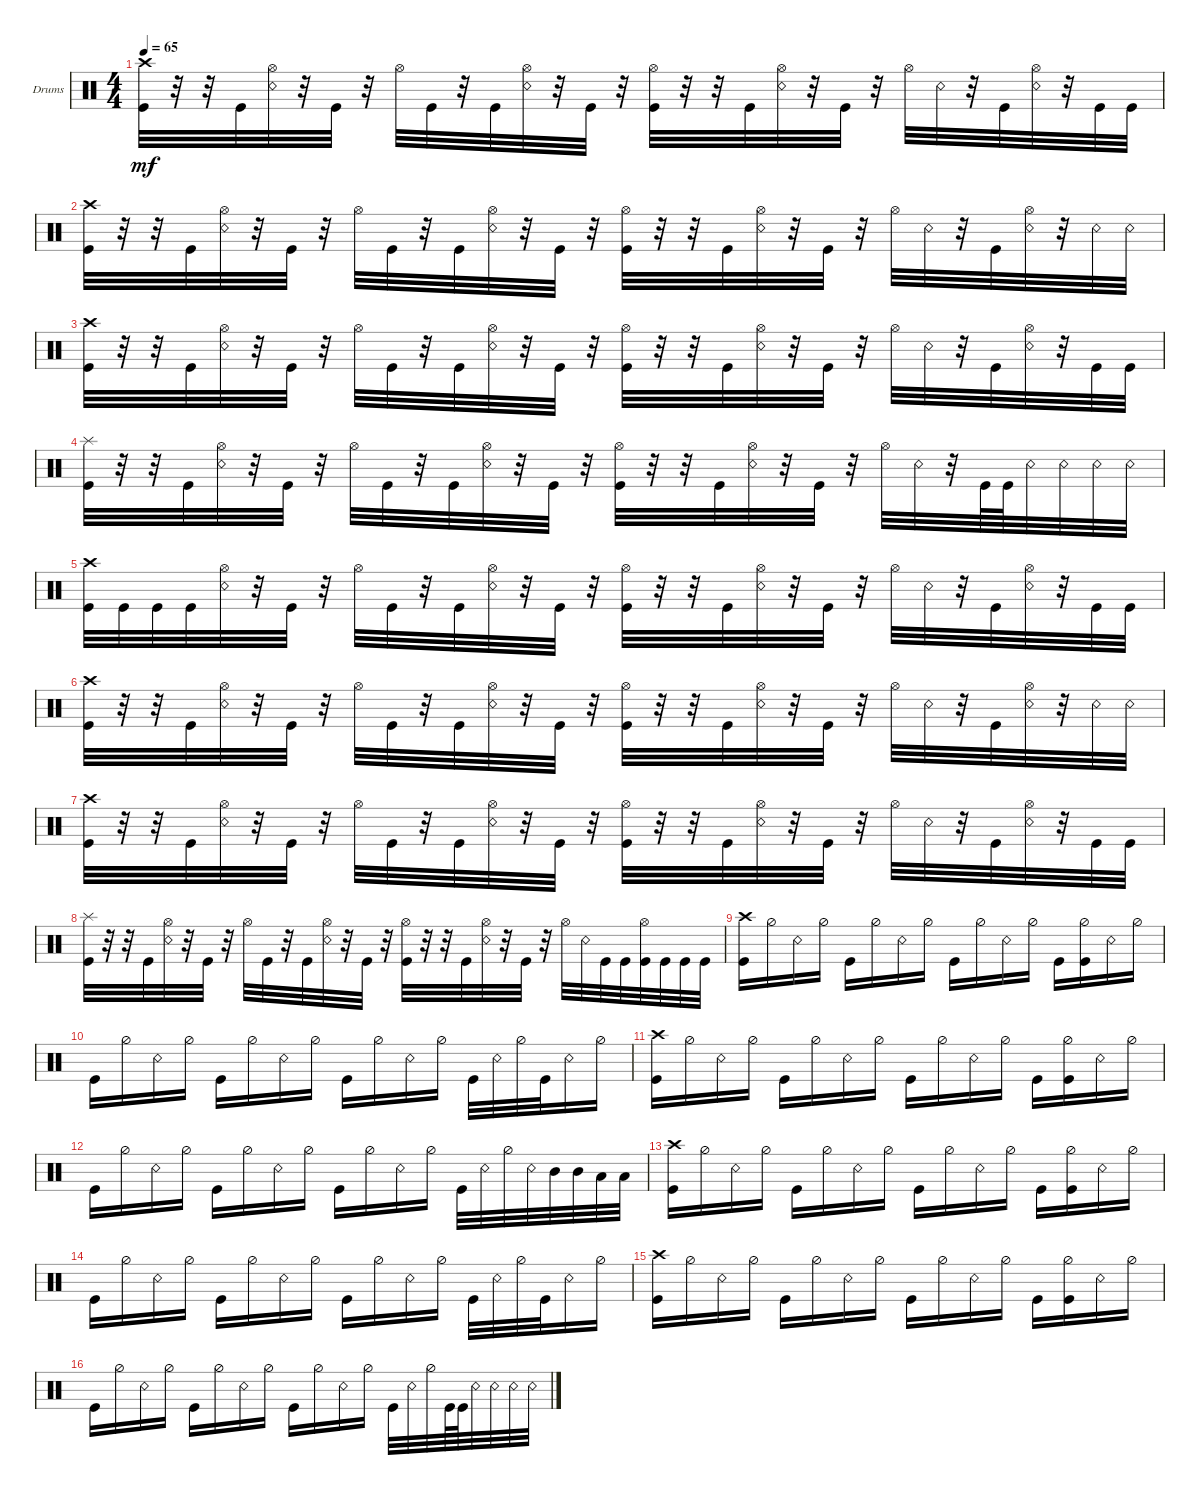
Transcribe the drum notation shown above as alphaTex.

\defaultSystemsLayout 4
\bracketExtendMode groupsimilarinstruments
\firstSystemTrackNameOrientation horizontal
\otherSystemsTrackNameOrientation horizontal
\track ("Drumkit" "Drums") {instrument percussion}
\staff {score}
\articulation defaults
\ts (4 4)
\tempo 65
\clef neutral
\ks c
("Kick (hit)" "Crash high (hit)").32{dy mf} r.32 r.32 "Kick (hit)".32 ("Snare (rim shot)" "Hi-Hat (open)").32 r.32 "Kick (hit)".32 r.32 "Hi-Hat (open)".32 "Kick (hit)".32 r.32 "Kick (hit)".32 ("Snare (rim shot)" "Hi-Hat (open)").32 r.32 "Kick (hit)".32 r.32 ("Kick (hit)" "Hi-Hat (open)").32 r.32 r.32 "Kick (hit)".32 ("Snare (rim shot)" "Hi-Hat (open)").32 r.32 "Kick (hit)".32 r.32 "Hi-Hat (open)".32 "Snare (rim shot)".32 r.32 "Kick (hit)".32 ("Snare (rim shot)" "Hi-Hat (open)").32 r.32 "Kick (hit)".32 "Kick (hit)".32 |
("Kick (hit)" "Crash high (hit)").32 r.32 r.32 "Kick (hit)".32 ("Snare (rim shot)" "Hi-Hat (open)").32 r.32 "Kick (hit)".32 r.32 "Hi-Hat (open)".32 "Kick (hit)".32 r.32 "Kick (hit)".32 ("Snare (rim shot)" "Hi-Hat (open)").32 r.32 "Kick (hit)".32 r.32 ("Kick (hit)" "Hi-Hat (open)").32 r.32 r.32 "Kick (hit)".32 ("Snare (rim shot)" "Hi-Hat (open)").32 r.32 "Kick (hit)".32 r.32 "Hi-Hat (open)".32 "Snare (rim shot)".32 r.32 "Kick (hit)".32 ("Snare (rim shot)" "Hi-Hat (open)").32 r.32 "Snare (rim shot)".32 "Snare (rim shot)".32 |
("Kick (hit)" "Crash high (hit)").32 r.32 r.32 "Kick (hit)".32 ("Snare (rim shot)" "Hi-Hat (open)").32 r.32 "Kick (hit)".32 r.32 "Hi-Hat (open)".32 "Kick (hit)".32 r.32 "Kick (hit)".32 ("Snare (rim shot)" "Hi-Hat (open)").32 r.32 "Kick (hit)".32 r.32 ("Kick (hit)" "Hi-Hat (open)").32 r.32 r.32 "Kick (hit)".32 ("Snare (rim shot)" "Hi-Hat (open)").32 r.32 "Kick (hit)".32 r.32 "Hi-Hat (open)".32 "Snare (rim shot)".32 r.32 "Kick (hit)".32 ("Snare (rim shot)" "Hi-Hat (open)").32 r.32 "Kick (hit)".32 "Kick (hit)".32 |
("Kick (hit)" "Splash (hit)").32 r.32 r.32 "Kick (hit)".32 ("Snare (rim shot)" "Hi-Hat (open)").32 r.32 "Kick (hit)".32 r.32 "Hi-Hat (open)".32 "Kick (hit)".32 r.32 "Kick (hit)".32 ("Snare (rim shot)" "Hi-Hat (open)").32 r.32 "Kick (hit)".32 r.32 ("Kick (hit)" "Hi-Hat (open)").32 r.32 r.32 "Kick (hit)".32 ("Snare (rim shot)" "Hi-Hat (open)").32 r.32 "Kick (hit)".32 r.32 "Hi-Hat (open)".32 "Snare (rim shot)".32 r.32 "Kick (hit)".64 "Kick (hit)".64 "Snare (rim shot)".32 "Snare (rim shot)".32 "Snare (rim shot)".32 "Snare (rim shot)".32 |
("Kick (hit)" "Crash high (hit)").32 "Kick (hit)".32 "Kick (hit)".32 "Kick (hit)".32 ("Snare (rim shot)" "Hi-Hat (open)").32 r.32 "Kick (hit)".32 r.32 "Hi-Hat (open)".32 "Kick (hit)".32 r.32 "Kick (hit)".32 ("Snare (rim shot)" "Hi-Hat (open)").32 r.32 "Kick (hit)".32 r.32 ("Kick (hit)" "Hi-Hat (open)").32 r.32 r.32 "Kick (hit)".32 ("Snare (rim shot)" "Hi-Hat (open)").32 r.32 "Kick (hit)".32 r.32 "Hi-Hat (open)".32 "Snare (rim shot)".32 r.32 "Kick (hit)".32 ("Snare (rim shot)" "Hi-Hat (open)").32 r.32 "Kick (hit)".32 "Kick (hit)".32 |
("Kick (hit)" "Crash high (hit)").32 r.32 r.32 "Kick (hit)".32 ("Snare (rim shot)" "Hi-Hat (open)").32 r.32 "Kick (hit)".32 r.32 "Hi-Hat (open)".32 "Kick (hit)".32 r.32 "Kick (hit)".32 ("Snare (rim shot)" "Hi-Hat (open)").32 r.32 "Kick (hit)".32 r.32 ("Kick (hit)" "Hi-Hat (open)").32 r.32 r.32 "Kick (hit)".32 ("Snare (rim shot)" "Hi-Hat (open)").32 r.32 "Kick (hit)".32 r.32 "Hi-Hat (open)".32 "Snare (rim shot)".32 r.32 "Kick (hit)".32 ("Snare (rim shot)" "Hi-Hat (open)").32 r.32 "Snare (rim shot)".32 "Snare (rim shot)".32 |
("Kick (hit)" "Crash high (hit)").32 r.32 r.32 "Kick (hit)".32 ("Snare (rim shot)" "Hi-Hat (open)").32 r.32 "Kick (hit)".32 r.32 "Hi-Hat (open)".32 "Kick (hit)".32 r.32 "Kick (hit)".32 ("Snare (rim shot)" "Hi-Hat (open)").32 r.32 "Kick (hit)".32 r.32 ("Kick (hit)" "Hi-Hat (open)").32 r.32 r.32 "Kick (hit)".32 ("Snare (rim shot)" "Hi-Hat (open)").32 r.32 "Kick (hit)".32 r.32 "Hi-Hat (open)".32 "Snare (rim shot)".32 r.32 "Kick (hit)".32 ("Snare (rim shot)" "Hi-Hat (open)").32 r.32 "Kick (hit)".32 "Kick (hit)".32 |
("Kick (hit)" "Splash (hit)").32 r.32 r.32 "Kick (hit)".32 ("Snare (rim shot)" "Hi-Hat (open)").32 r.32 "Kick (hit)".32 r.32 "Hi-Hat (open)".32 "Kick (hit)".32 r.32 "Kick (hit)".32 ("Snare (rim shot)" "Hi-Hat (open)").32 r.32 "Kick (hit)".32 r.32 ("Kick (hit)" "Hi-Hat (open)").32 r.32 r.32 "Kick (hit)".32 ("Snare (rim shot)" "Hi-Hat (open)").32 r.32 "Kick (hit)".32 r.32 "Hi-Hat (open)".32 "Snare (rim shot)".32 "Kick (hit)".32 "Kick (hit)".32 ("Kick (hit)" "Hi-Hat (open)").32 "Kick (hit)".32 "Kick (hit)".32 "Kick (hit)".32 |
("Kick (hit)" "Crash high (hit)").16 "Hi-Hat (half)".16 "Snare (rim shot)".16 "Hi-Hat (half)".16 "Kick (hit)".16 "Hi-Hat (half)".16 "Snare (rim shot)".16 "Hi-Hat (half)".16 "Kick (hit)".16 "Hi-Hat (half)".16 "Snare (rim shot)".16 "Hi-Hat (half)".16 "Kick (hit)".16 ("Hi-Hat (half)" "Kick (hit)").16 "Snare (rim shot)".16 "Hi-Hat (half)".16 |
"Kick (hit)".16 "Hi-Hat (half)".16 "Snare (rim shot)".16 "Hi-Hat (half)".16 "Kick (hit)".16 "Hi-Hat (half)".16 "Snare (rim shot)".16 "Hi-Hat (half)".16 "Kick (hit)".16 "Hi-Hat (half)".16 "Snare (rim shot)".16 "Hi-Hat (half)".16 "Kick (hit)".32 "Snare (rim shot)".32 "Hi-Hat (half)".32 "Kick (hit)".32 "Snare (rim shot)".16 "Hi-Hat (half)".16 |
("Kick (hit)" "Crash high (hit)").16 "Hi-Hat (half)".16 "Snare (rim shot)".16 "Hi-Hat (half)".16 "Kick (hit)".16 "Hi-Hat (half)".16 "Snare (rim shot)".16 "Hi-Hat (half)".16 "Kick (hit)".16 "Hi-Hat (half)".16 "Snare (rim shot)".16 "Hi-Hat (half)".16 "Kick (hit)".16 ("Hi-Hat (half)" "Kick (hit)").16 "Snare (rim shot)".16 "Hi-Hat (half)".16 |
"Kick (hit)".16 "Hi-Hat (half)".16 "Snare (rim shot)".16 "Hi-Hat (half)".16 "Kick (hit)".16 "Hi-Hat (half)".16 "Snare (rim shot)".16 "Hi-Hat (half)".16 "Kick (hit)".16 "Hi-Hat (half)".16 "Snare (rim shot)".16 "Hi-Hat (half)".16 "Kick (hit)".32 "Snare (rim shot)".32 "Hi-Hat (half)".32 "Snare (rim shot)".32 "Mid Tom (hit)".32 "Mid Tom (hit)".32 "Low Tom (hit)".32 "Low Tom (hit)".32 |
("Kick (hit)" "Crash high (hit)").16 "Hi-Hat (half)".16 "Snare (rim shot)".16 "Hi-Hat (half)".16 "Kick (hit)".16 "Hi-Hat (half)".16 "Snare (rim shot)".16 "Hi-Hat (half)".16 "Kick (hit)".16 "Hi-Hat (half)".16 "Snare (rim shot)".16 "Hi-Hat (half)".16 "Kick (hit)".16 ("Hi-Hat (half)" "Kick (hit)").16 "Snare (rim shot)".16 "Hi-Hat (half)".16 |
"Kick (hit)".16 "Hi-Hat (half)".16 "Snare (rim shot)".16 "Hi-Hat (half)".16 "Kick (hit)".16 "Hi-Hat (half)".16 "Snare (rim shot)".16 "Hi-Hat (half)".16 "Kick (hit)".16 "Hi-Hat (half)".16 "Snare (rim shot)".16 "Hi-Hat (half)".16 "Kick (hit)".32 "Snare (rim shot)".32 "Hi-Hat (half)".32 "Kick (hit)".32 "Snare (rim shot)".16 "Hi-Hat (half)".16 |
("Kick (hit)" "Crash high (hit)").16 "Hi-Hat (half)".16 "Snare (rim shot)".16 "Hi-Hat (half)".16 "Kick (hit)".16 "Hi-Hat (half)".16 "Snare (rim shot)".16 "Hi-Hat (half)".16 "Kick (hit)".16 "Hi-Hat (half)".16 "Snare (rim shot)".16 "Hi-Hat (half)".16 "Kick (hit)".16 ("Hi-Hat (half)" "Kick (hit)").16 "Snare (rim shot)".16 "Hi-Hat (half)".16 |
"Kick (hit)".16 "Hi-Hat (half)".16 "Snare (rim shot)".16 "Hi-Hat (half)".16 "Kick (hit)".16 "Hi-Hat (half)".16 "Snare (rim shot)".16 "Hi-Hat (half)".16 "Kick (hit)".16 "Hi-Hat (half)".16 "Snare (rim shot)".16 "Hi-Hat (half)".16 "Kick (hit)".32 "Snare (rim shot)".32 "Hi-Hat (half)".32 "Kick (hit)".64 "Kick (hit)".64 "Snare (rim shot)".32 "Snare (rim shot)".32 "Snare (rim shot)".32 "Snare (rim shot)".32
